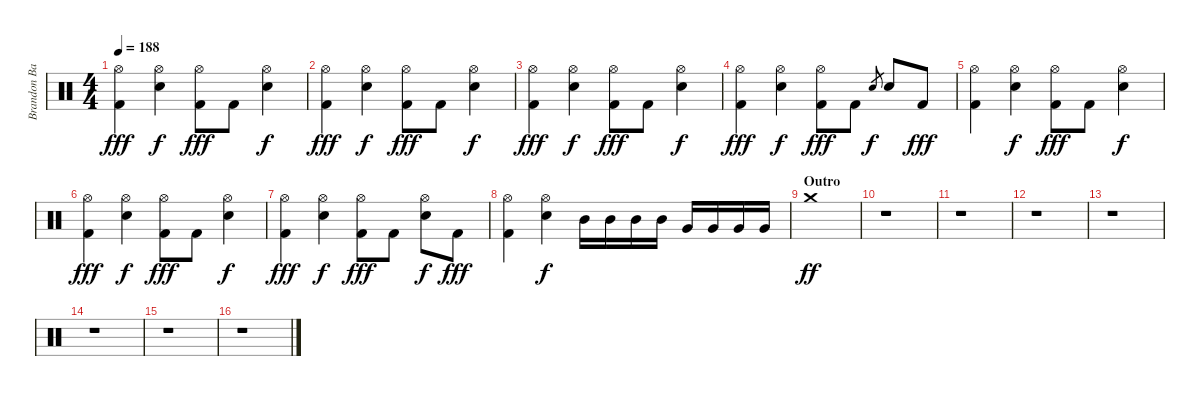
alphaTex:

\track ("Brandon Barnes (Drums)" "Brandon Ba") {instrument percussion}
\staff {score}
\articulation defaults
\ts (4 4)
\tempo 188
\clef neutral
\ks c
("Hi-Hat (open)" "Kick (hit) 2").4{dy fff} ("Hi-Hat (open)" "Electric Snare (hit)").4{dy f} ("Hi-Hat (open)" "Kick (hit) 2").8{dy fff} "Kick (hit) 2".8 ("Hi-Hat (open)" "Electric Snare (hit)").4{dy f} |
("Hi-Hat (open)" "Kick (hit) 2").4{dy fff} ("Hi-Hat (open)" "Electric Snare (hit)").4{dy f} ("Hi-Hat (open)" "Kick (hit) 2").8{dy fff} "Kick (hit) 2".8 ("Hi-Hat (open)" "Electric Snare (hit)").4{dy f} |
("Hi-Hat (open)" "Kick (hit) 2").4{dy fff} ("Hi-Hat (open)" "Electric Snare (hit)").4{dy f} ("Hi-Hat (open)" "Kick (hit) 2").8{dy fff} "Kick (hit) 2".8 ("Hi-Hat (open)" "Electric Snare (hit)").4{dy f} |
("Hi-Hat (open)" "Kick (hit) 2").4{dy fff} ("Hi-Hat (open)" "Electric Snare (hit)").4{dy f} ("Hi-Hat (open)" "Kick (hit) 2").8{dy fff} "Kick (hit) 2".8 "Electric Snare (hit)".8{gr dy f} "Electric Snare (hit)".8 "Kick (hit) 2".8{dy fff} |
("Hi-Hat (open)" "Kick (hit) 2").4 ("Hi-Hat (open)" "Electric Snare (hit)").4{dy f} ("Hi-Hat (open)" "Kick (hit) 2").8{dy fff} "Kick (hit) 2".8 ("Hi-Hat (open)" "Electric Snare (hit)").4{dy f} |
("Hi-Hat (open)" "Kick (hit) 2").4{dy fff} ("Hi-Hat (open)" "Electric Snare (hit)").4{dy f} ("Hi-Hat (open)" "Kick (hit) 2").8{dy fff} "Kick (hit) 2".8 ("Hi-Hat (open)" "Electric Snare (hit)").4{dy f} |
("Hi-Hat (open)" "Kick (hit) 2").4{dy fff} ("Hi-Hat (open)" "Electric Snare (hit)").4{dy f} ("Hi-Hat (open)" "Kick (hit) 2").8{dy fff} "Kick (hit) 2".8 ("Hi-Hat (open)" "Electric Snare (hit)").8{dy f} "Kick (hit) 2".8{dy fff} |
("Hi-Hat (open)" "Kick (hit) 2").4 ("Hi-Hat (open)" "Electric Snare (hit)").4{dy f} "Mid Tom (hit)".16 "Mid Tom (hit)".16 "Mid Tom (hit)".16 "Mid Tom (hit)".16 "Very Low Tom (hit)".16 "Very Low Tom (hit)".16 "Very Low Tom (hit)".16 "Very Low Tom (hit)".16 |
\section ("" "Outro")
"Crash medium (hit)".1{dy ff} |
r.1 |
r.1 |
r.1 |
r.1 |
r.1 |
r.1 |
r.1
